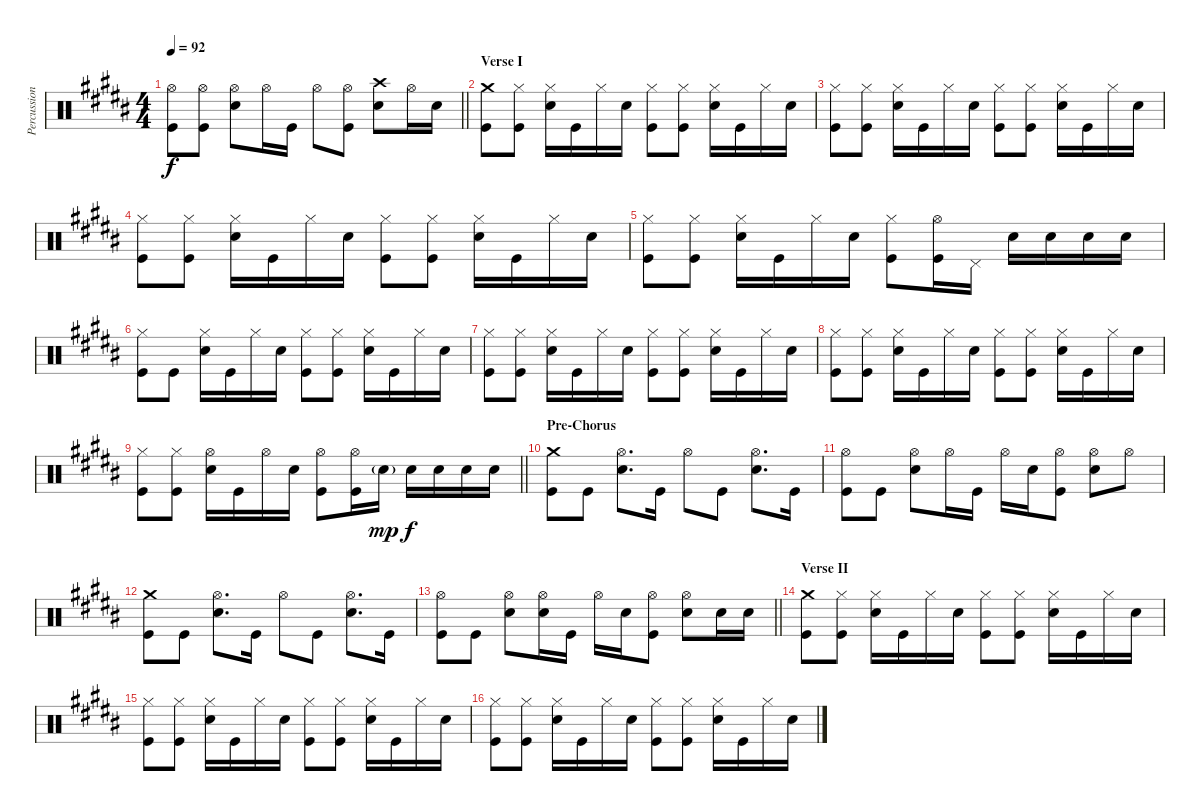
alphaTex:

\track ("Percussion" "Percussion") {instrument percussion}
\staff {score}
\articulation defaults
\ts (4 4)
\tempo 92
\clef neutral
\barLineRight lightlight
\ks b
("Hi-Hat (open)" "Kick (hit)").8{dy f} ("Hi-Hat (open)" "Kick (hit)").8 ("Hi-Hat (open)" "Electric Snare (hit)").8 "Hi-Hat (open)".16 "Kick (hit)".16 "Hi-Hat (open)".8 ("Hi-Hat (open)" "Kick (hit)").8 ("Crash high (hit)" "Electric Snare (hit)").8 "Hi-Hat (open)".16 "Electric Snare (hit)".16 |
\section ("" "Verse I")
("Crash medium (hit)" "Kick (hit)").8 ("Hi-Hat (closed)" "Kick (hit)").8 ("Hi-Hat (closed)" "Electric Snare (hit)").16 "Kick (hit)".16 "Hi-Hat (closed)".16 "Electric Snare (hit)".16 ("Hi-Hat (closed)" "Kick (hit)").8 ("Hi-Hat (closed)" "Kick (hit)").8 ("Hi-Hat (closed)" "Electric Snare (hit)").16 "Kick (hit)".16 "Hi-Hat (closed)".16 "Electric Snare (hit)".16 |
("Hi-Hat (closed)" "Kick (hit)").8 ("Hi-Hat (closed)" "Kick (hit)").8 ("Hi-Hat (closed)" "Electric Snare (hit)").16 "Kick (hit)".16 "Hi-Hat (closed)".16 "Electric Snare (hit)".16 ("Hi-Hat (closed)" "Kick (hit)").8 ("Hi-Hat (closed)" "Kick (hit)").8 ("Hi-Hat (closed)" "Electric Snare (hit)").16 "Kick (hit)".16 "Hi-Hat (closed)".16 "Electric Snare (hit)".16 |
("Hi-Hat (closed)" "Kick (hit)").8 ("Hi-Hat (closed)" "Kick (hit)").8 ("Hi-Hat (closed)" "Electric Snare (hit)").16 "Kick (hit)".16 "Hi-Hat (closed)".16 "Electric Snare (hit)".16 ("Hi-Hat (closed)" "Kick (hit)").8 ("Hi-Hat (closed)" "Kick (hit)").8 ("Hi-Hat (closed)" "Electric Snare (hit)").16 "Kick (hit)".16 "Hi-Hat (closed)".16 "Electric Snare (hit)".16 |
("Hi-Hat (closed)" "Kick (hit)").8 ("Hi-Hat (closed)" "Kick (hit)").8 ("Hi-Hat (closed)" "Electric Snare (hit)").16 "Kick (hit)".16 "Hi-Hat (closed)".16 "Electric Snare (hit)".16 ("Hi-Hat (closed)" "Kick (hit)").8 ("Hi-Hat (open)" "Kick (hit)").16 "Pedal Hi-Hat (hit)".16 "Electric Snare (hit)".16 "Electric Snare (hit)".16 "Electric Snare (hit)".16 "Electric Snare (hit)".16 |
("Hi-Hat (closed)" "Kick (hit)").8 "Kick (hit)".8 ("Hi-Hat (closed)" "Electric Snare (hit)").16 "Kick (hit)".16 "Hi-Hat (closed)".16 "Electric Snare (hit)".16 ("Hi-Hat (closed)" "Kick (hit)").8 ("Hi-Hat (closed)" "Kick (hit)").8 ("Hi-Hat (closed)" "Electric Snare (hit)").16 "Kick (hit)".16 "Hi-Hat (closed)".16 "Electric Snare (hit)".16 |
("Hi-Hat (closed)" "Kick (hit)").8 ("Hi-Hat (closed)" "Kick (hit)").8 ("Hi-Hat (closed)" "Electric Snare (hit)").16 "Kick (hit)".16 "Hi-Hat (closed)".16 "Electric Snare (hit)".16 ("Hi-Hat (closed)" "Kick (hit)").8 ("Hi-Hat (closed)" "Kick (hit)").8 ("Hi-Hat (closed)" "Electric Snare (hit)").16 "Kick (hit)".16 "Hi-Hat (closed)".16 "Electric Snare (hit)".16 |
("Hi-Hat (closed)" "Kick (hit)").8 ("Hi-Hat (closed)" "Kick (hit)").8 ("Hi-Hat (closed)" "Electric Snare (hit)").16 "Kick (hit)".16 "Hi-Hat (closed)".16 "Electric Snare (hit)".16 ("Hi-Hat (closed)" "Kick (hit)").8 ("Hi-Hat (closed)" "Kick (hit)").8 ("Hi-Hat (closed)" "Electric Snare (hit)").16 "Kick (hit)".16 "Hi-Hat (closed)".16 "Electric Snare (hit)".16 |
\barLineRight lightlight
("Hi-Hat (closed)" "Kick (hit)").8 ("Hi-Hat (closed)" "Kick (hit)").8 ("Hi-Hat (open)" "Electric Snare (hit)").16 "Kick (hit)".16 "Hi-Hat (open)".16 "Electric Snare (hit)".16 ("Hi-Hat (open)" "Kick (hit)").8 ("Hi-Hat (open)" "Kick (hit)").16 "Electric Snare (hit)"{g}.16{dy mp} "Electric Snare (hit)".16{dy f} "Electric Snare (hit)".16 "Electric Snare (hit)".16 "Electric Snare (hit)".16 |
\section ("" "Pre-Chorus")
("Crash medium (hit)" "Kick (hit)").8 "Kick (hit)".8 ("Hi-Hat (open)" "Electric Snare (hit)").8{d} "Kick (hit)".16 "Hi-Hat (open)".8 "Kick (hit)".8 ("Hi-Hat (open)" "Electric Snare (hit)").8{d} "Kick (hit)".16 |
("Hi-Hat (open)" "Kick (hit)").8 "Kick (hit)".8 ("Hi-Hat (open)" "Electric Snare (hit)").8 "Hi-Hat (open)".16 "Kick (hit)".16 "Hi-Hat (open)".16 "Electric Snare (hit)".16 ("Hi-Hat (open)" "Kick (hit)").8 ("Hi-Hat (open)" "Electric Snare (hit)").8 "Hi-Hat (open)".8 |
("Crash medium (hit)" "Kick (hit)").8 "Kick (hit)".8 ("Hi-Hat (open)" "Electric Snare (hit)").8{d} "Kick (hit)".16 "Hi-Hat (open)".8 "Kick (hit)".8 ("Hi-Hat (open)" "Electric Snare (hit)").8{d} "Kick (hit)".16 |
\barLineRight lightlight
("Hi-Hat (open)" "Kick (hit)").8 "Kick (hit)".8 ("Hi-Hat (open)" "Electric Snare (hit)").8 ("Hi-Hat (open)" "Electric Snare (hit)").16 "Kick (hit)".16 "Hi-Hat (open)".16 "Electric Snare (hit)".16 ("Hi-Hat (open)" "Kick (hit)").8 ("Hi-Hat (open)" "Electric Snare (hit)").8 "Electric Snare (hit)".16 "Electric Snare (hit)".16 |
\section ("" "Verse II")
("Crash medium (hit)" "Kick (hit)").8 ("Hi-Hat (closed)" "Kick (hit)").8 ("Hi-Hat (closed)" "Electric Snare (hit)").16 "Kick (hit)".16 "Hi-Hat (closed)".16 "Electric Snare (hit)".16 ("Hi-Hat (closed)" "Kick (hit)").8 ("Hi-Hat (closed)" "Kick (hit)").8 ("Hi-Hat (closed)" "Electric Snare (hit)").16 "Kick (hit)".16 "Hi-Hat (closed)".16 "Electric Snare (hit)".16 |
("Hi-Hat (closed)" "Kick (hit)").8 ("Hi-Hat (closed)" "Kick (hit)").8 ("Hi-Hat (closed)" "Electric Snare (hit)").16 "Kick (hit)".16 "Hi-Hat (closed)".16 "Electric Snare (hit)".16 ("Hi-Hat (closed)" "Kick (hit)").8 ("Hi-Hat (closed)" "Kick (hit)").8 ("Hi-Hat (closed)" "Electric Snare (hit)").16 "Kick (hit)".16 "Hi-Hat (closed)".16 "Electric Snare (hit)".16 |
("Hi-Hat (closed)" "Kick (hit)").8 ("Hi-Hat (closed)" "Kick (hit)").8 ("Hi-Hat (closed)" "Electric Snare (hit)").16 "Kick (hit)".16 "Hi-Hat (closed)".16 "Electric Snare (hit)".16 ("Hi-Hat (closed)" "Kick (hit)").8 ("Hi-Hat (closed)" "Kick (hit)").8 ("Hi-Hat (closed)" "Electric Snare (hit)").16 "Kick (hit)".16 "Hi-Hat (closed)".16 "Electric Snare (hit)".16
